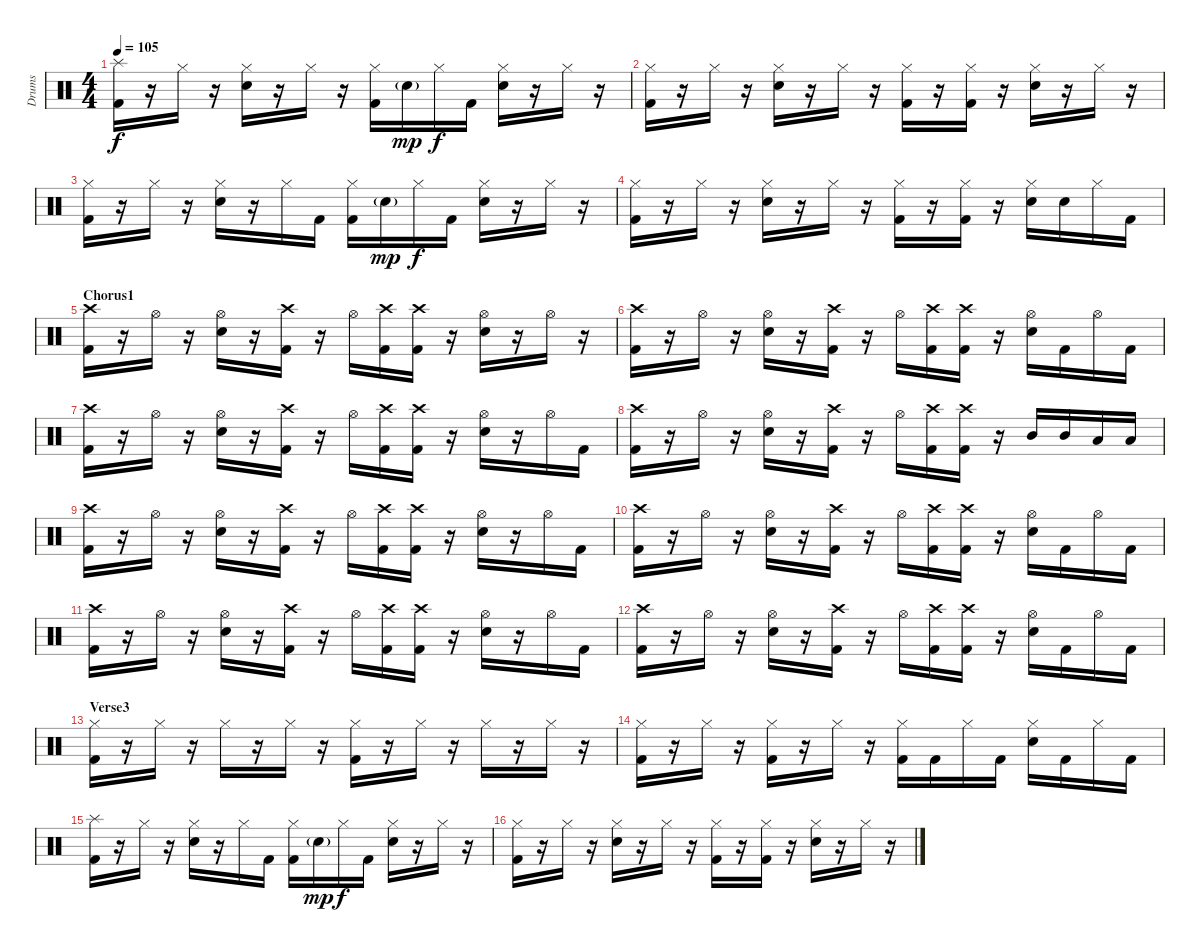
\track ("Drums" "Drums") {instrument percussion}
\staff {score}
\articulation defaults
\ts (4 4)
\tempo 105
\clef neutral
\ks c
("Splash (hit)" "Kick (hit) 2").16{dy f} r.16 "Hi-Hat (closed)".16 r.16 ("Hi-Hat (closed)" "Electric Snare (hit)").16 r.16 "Hi-Hat (closed)".16 r.16 ("Hi-Hat (closed)" "Kick (hit) 2").16 "Electric Snare (hit)"{g}.16{dy mp} "Hi-Hat (closed)".16{dy f} "Kick (hit) 2".16 ("Hi-Hat (closed)" "Electric Snare (hit)").16 r.16 "Hi-Hat (closed)".16 r.16 |
("Hi-Hat (closed)" "Kick (hit) 2").16 r.16 "Hi-Hat (closed)".16 r.16 ("Hi-Hat (closed)" "Electric Snare (hit)").16 r.16 "Hi-Hat (closed)".16 r.16 ("Hi-Hat (closed)" "Kick (hit) 2").16 r.16 ("Hi-Hat (closed)" "Kick (hit) 2").16 r.16 ("Hi-Hat (closed)" "Electric Snare (hit)").16 r.16 "Hi-Hat (closed)".16 r.16 |
("Hi-Hat (closed)" "Kick (hit) 2").16 r.16 "Hi-Hat (closed)".16 r.16 ("Hi-Hat (closed)" "Electric Snare (hit)").16 r.16 "Hi-Hat (closed)".16 "Kick (hit) 2".16 ("Hi-Hat (closed)" "Kick (hit) 2").16 "Electric Snare (hit)"{g}.16{dy mp} "Hi-Hat (closed)".16{dy f} "Kick (hit) 2".16 ("Hi-Hat (closed)" "Electric Snare (hit)").16 r.16 "Hi-Hat (closed)".16 r.16 |
("Hi-Hat (closed)" "Kick (hit) 2").16 r.16 "Hi-Hat (closed)".16 r.16 ("Hi-Hat (closed)" "Electric Snare (hit)").16 r.16 "Hi-Hat (closed)".16 r.16 ("Hi-Hat (closed)" "Kick (hit) 2").16 r.16 ("Hi-Hat (closed)" "Kick (hit) 2").16 r.16 ("Hi-Hat (closed)" "Electric Snare (hit)").16 "Electric Snare (hit)".16 "Hi-Hat (closed)".16 "Kick (hit) 2".16 |
\section ("" "Chorus1")
("Crash high (hit)" "Kick (hit) 2").16 r.16 "Hi-Hat (open)".16 r.16 ("Hi-Hat (open)" "Electric Snare (hit)").16 r.16 ("Crash high (hit)" "Kick (hit) 2").16 r.16 "Hi-Hat (open)".16 ("Crash high (hit)" "Kick (hit) 2").16 ("Crash high (hit)" "Kick (hit) 2").16 r.16 ("Hi-Hat (open)" "Electric Snare (hit)").16 r.16 "Hi-Hat (open)".16 r.16 |
("Crash high (hit)" "Kick (hit) 2").16 r.16 "Hi-Hat (open)".16 r.16 ("Hi-Hat (open)" "Electric Snare (hit)").16 r.16 ("Crash high (hit)" "Kick (hit) 2").16 r.16 "Hi-Hat (open)".16 ("Crash high (hit)" "Kick (hit) 2").16 ("Crash high (hit)" "Kick (hit) 2").16 r.16 ("Hi-Hat (open)" "Electric Snare (hit)").16 "Kick (hit) 2".16 "Hi-Hat (open)".16 "Kick (hit) 2".16 |
("Crash high (hit)" "Kick (hit) 2").16 r.16 "Hi-Hat (open)".16 r.16 ("Hi-Hat (open)" "Electric Snare (hit)").16 r.16 ("Crash high (hit)" "Kick (hit) 2").16 r.16 "Hi-Hat (open)".16 ("Crash high (hit)" "Kick (hit) 2").16 ("Crash high (hit)" "Kick (hit) 2").16 r.16 ("Hi-Hat (open)" "Electric Snare (hit)").16 r.16 "Hi-Hat (open)".16 "Kick (hit) 2".16 |
("Crash high (hit)" "Kick (hit) 2").16 r.16 "Hi-Hat (open)".16 r.16 ("Hi-Hat (open)" "Electric Snare (hit)").16 r.16 ("Crash high (hit)" "Kick (hit) 2").16 r.16 "Hi-Hat (open)".16 ("Crash high (hit)" "Kick (hit) 2").16 ("Crash high (hit)" "Kick (hit) 2").16 r.16 "Mid Tom (hit)".16 "Mid Tom (hit)".16 "Low Tom (hit)".16 "Low Tom (hit)".16 |
("Crash high (hit)" "Kick (hit) 2").16 r.16 "Hi-Hat (open)".16 r.16 ("Hi-Hat (open)" "Electric Snare (hit)").16 r.16 ("Crash high (hit)" "Kick (hit) 2").16 r.16 "Hi-Hat (open)".16 ("Crash high (hit)" "Kick (hit) 2").16 ("Crash high (hit)" "Kick (hit) 2").16 r.16 ("Hi-Hat (open)" "Electric Snare (hit)").16 r.16 "Hi-Hat (open)".16 "Kick (hit) 2".16 |
("Crash high (hit)" "Kick (hit) 2").16 r.16 "Hi-Hat (open)".16 r.16 ("Hi-Hat (open)" "Electric Snare (hit)").16 r.16 ("Crash high (hit)" "Kick (hit) 2").16 r.16 "Hi-Hat (open)".16 ("Crash high (hit)" "Kick (hit) 2").16 ("Crash high (hit)" "Kick (hit) 2").16 r.16 ("Hi-Hat (open)" "Electric Snare (hit)").16 "Kick (hit) 2".16 "Hi-Hat (open)".16 "Kick (hit) 2".16 |
("Crash high (hit)" "Kick (hit) 2").16 r.16 "Hi-Hat (open)".16 r.16 ("Hi-Hat (open)" "Electric Snare (hit)").16 r.16 ("Crash high (hit)" "Kick (hit) 2").16 r.16 "Hi-Hat (open)".16 ("Crash high (hit)" "Kick (hit) 2").16 ("Crash high (hit)" "Kick (hit) 2").16 r.16 ("Hi-Hat (open)" "Electric Snare (hit)").16 r.16 "Hi-Hat (open)".16 "Kick (hit) 2".16 |
("Crash high (hit)" "Kick (hit) 2").16 r.16 "Hi-Hat (open)".16 r.16 ("Hi-Hat (open)" "Electric Snare (hit)").16 r.16 ("Crash high (hit)" "Kick (hit) 2").16 r.16 "Hi-Hat (open)".16 ("Crash high (hit)" "Kick (hit) 2").16 ("Crash high (hit)" "Kick (hit) 2").16 r.16 ("Hi-Hat (open)" "Electric Snare (hit)").16 "Kick (hit) 2".16 "Hi-Hat (open)".16 "Kick (hit) 2".16 |
\section ("" "Verse3")
("Hi-Hat (closed)" "Kick (hit) 2").16 r.16 "Hi-Hat (closed)".16 r.16 "Hi-Hat (closed)".16 r.16 "Hi-Hat (closed)".16 r.16 ("Hi-Hat (closed)" "Kick (hit) 2").16 r.16 "Hi-Hat (closed)".16 r.16 "Hi-Hat (closed)".16 r.16 "Hi-Hat (closed)".16 r.16 |
("Hi-Hat (closed)" "Kick (hit) 2").16 r.16 "Hi-Hat (closed)".16 r.16 ("Hi-Hat (closed)" "Kick (hit) 2").16 r.16 "Hi-Hat (closed)".16 r.16 ("Hi-Hat (closed)" "Kick (hit) 2").16 "Kick (hit) 2".16 "Hi-Hat (closed)".16 "Kick (hit) 2".16 ("Hi-Hat (closed)" "Electric Snare (hit)").16 "Kick (hit) 2".16 "Hi-Hat (closed)".16 "Kick (hit) 2".16 |
("Splash (hit)" "Kick (hit) 2").16 r.16 "Hi-Hat (closed)".16 r.16 ("Hi-Hat (closed)" "Electric Snare (hit)").16 r.16 "Hi-Hat (closed)".16 "Kick (hit) 2".16 ("Hi-Hat (closed)" "Kick (hit) 2").16 "Electric Snare (hit)"{g}.16{dy mp} "Hi-Hat (closed)".16{dy f} "Kick (hit) 2".16 ("Hi-Hat (closed)" "Electric Snare (hit)").16 r.16 "Hi-Hat (closed)".16 r.16 |
("Hi-Hat (closed)" "Kick (hit) 2").16 r.16 "Hi-Hat (closed)".16 r.16 ("Hi-Hat (closed)" "Electric Snare (hit)").16 r.16 "Hi-Hat (closed)".16 r.16 ("Hi-Hat (closed)" "Kick (hit) 2").16 r.16 ("Hi-Hat (closed)" "Kick (hit) 2").16 r.16 ("Hi-Hat (closed)" "Electric Snare (hit)").16 r.16 "Hi-Hat (closed)".16 r.16
